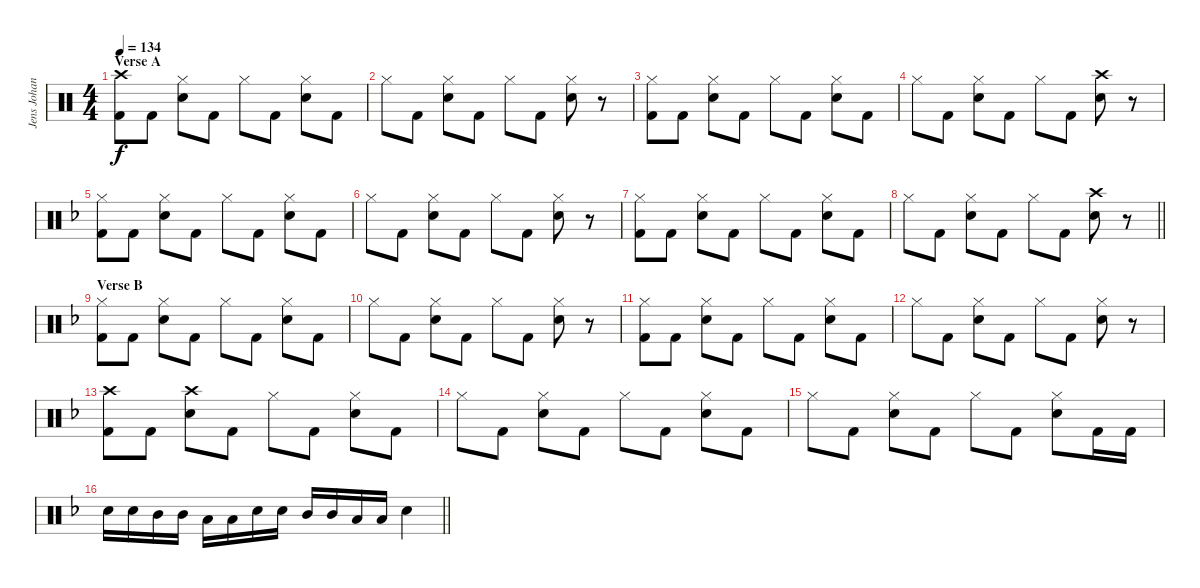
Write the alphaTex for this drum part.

\track ("Jens Johansson" "Jens Johan") {instrument percussion}
\staff {score}
\articulation defaults
\ts (4 4)
\section ("" "Verse A")
\tempo 134
\clef neutral
\ks c
("Crash high (hit)" "Kick (hit) 2").8{dy f} "Kick (hit) 2".8 ("Electric Snare (hit)" "Hi-Hat (closed)").8 "Kick (hit) 2".8 "Hi-Hat (closed)".8 "Kick (hit) 2".8 ("Electric Snare (hit)" "Hi-Hat (closed)").8 "Kick (hit) 2".8 |
"Hi-Hat (closed)".8 "Kick (hit) 2".8 ("Electric Snare (hit)" "Hi-Hat (closed)").8 "Kick (hit) 2".8 "Hi-Hat (closed)".8 "Kick (hit) 2".8 ("Electric Snare (hit)" "Hi-Hat (closed)").8 r.8 |
("Hi-Hat (closed)" "Kick (hit) 2").8 "Kick (hit) 2".8 ("Electric Snare (hit)" "Hi-Hat (closed)").8 "Kick (hit) 2".8 "Hi-Hat (closed)".8 "Kick (hit) 2".8 ("Electric Snare (hit)" "Hi-Hat (closed)").8 "Kick (hit) 2".8 |
"Hi-Hat (closed)".8 "Kick (hit) 2".8 ("Electric Snare (hit)" "Hi-Hat (closed)").8 "Kick (hit) 2".8 "Hi-Hat (closed)".8 "Kick (hit) 2".8 ("Crash high (hit)" "Electric Snare (hit)").8 r.8 |
\ks f
("Hi-Hat (closed)" "Kick (hit) 2").8 "Kick (hit) 2".8 ("Electric Snare (hit)" "Hi-Hat (closed)").8 "Kick (hit) 2".8 "Hi-Hat (closed)".8 "Kick (hit) 2".8 ("Electric Snare (hit)" "Hi-Hat (closed)").8 "Kick (hit) 2".8 |
"Hi-Hat (closed)".8 "Kick (hit) 2".8 ("Electric Snare (hit)" "Hi-Hat (closed)").8 "Kick (hit) 2".8 "Hi-Hat (closed)".8 "Kick (hit) 2".8 ("Electric Snare (hit)" "Hi-Hat (closed)").8 r.8 |
("Hi-Hat (closed)" "Kick (hit) 2").8 "Kick (hit) 2".8 ("Electric Snare (hit)" "Hi-Hat (closed)").8 "Kick (hit) 2".8 "Hi-Hat (closed)".8 "Kick (hit) 2".8 ("Electric Snare (hit)" "Hi-Hat (closed)").8 "Kick (hit) 2".8 |
\barLineRight lightlight "Hi-Hat (closed)".8 "Kick (hit) 2".8
("Electric Snare (hit)" "Hi-Hat (closed)").8 "Kick (hit) 2".8 "Hi-Hat (closed)".8 "Kick (hit) 2".8 ("Crash high (hit)" "Electric Snare (hit)").8 r.8 |
\section ("" "Verse B")
("Hi-Hat (closed)" "Kick (hit) 2").8 "Kick (hit) 2".8 ("Electric Snare (hit)" "Hi-Hat (closed)").8 "Kick (hit) 2".8 "Hi-Hat (closed)".8 "Kick (hit) 2".8 ("Electric Snare (hit)" "Hi-Hat (closed)").8 "Kick (hit) 2".8 |
"Hi-Hat (closed)".8 "Kick (hit) 2".8 ("Electric Snare (hit)" "Hi-Hat (closed)").8 "Kick (hit) 2".8 "Hi-Hat (closed)".8 "Kick (hit) 2".8 ("Electric Snare (hit)" "Hi-Hat (closed)").8 r.8 |
("Hi-Hat (closed)" "Kick (hit) 2").8 "Kick (hit) 2".8 ("Electric Snare (hit)" "Hi-Hat (closed)").8 "Kick (hit) 2".8 "Hi-Hat (closed)".8 "Kick (hit) 2".8 ("Electric Snare (hit)" "Hi-Hat (closed)").8 "Kick (hit) 2".8 |
"Hi-Hat (closed)".8 "Kick (hit) 2".8 ("Electric Snare (hit)" "Hi-Hat (closed)").8 "Kick (hit) 2".8 "Hi-Hat (closed)".8 "Kick (hit) 2".8 ("Electric Snare (hit)" "Hi-Hat (closed)").8 r.8 |
("Crash high (hit)" "Kick (hit) 2").8 "Kick (hit) 2".8 ("Crash high (hit)" "Electric Snare (hit)").8 "Kick (hit) 2".8 "Hi-Hat (closed)".8 "Kick (hit) 2".8 ("Electric Snare (hit)" "Hi-Hat (closed)").8 "Kick (hit) 2".8 |
"Hi-Hat (closed)".8 "Kick (hit) 2".8 ("Electric Snare (hit)" "Hi-Hat (closed)").8 "Kick (hit) 2".8 "Hi-Hat (closed)".8 "Kick (hit) 2".8 ("Electric Snare (hit)" "Hi-Hat (closed)").8 "Kick (hit) 2".8 |
"Hi-Hat (closed)".8 "Kick (hit) 2".8 ("Electric Snare (hit)" "Hi-Hat (closed)").8 "Kick (hit) 2".8 "Hi-Hat (closed)".8 "Kick (hit) 2".8 ("Electric Snare (hit)" "Hi-Hat (closed)").8 "Kick (hit) 2".16 "Kick (hit) 2".16 |
\barLineRight lightlight "Electric Snare (hit)".16 "Electric Snare (hit)".16 "Mid Tom (hit)".16 "Mid Tom (hit)".16 "Low Tom (hit)".16 "Low Tom (hit)".16 "Electric Snare (hit)".16 "Electric Snare (hit)".16 "Mid Tom (hit)".16 "Mid Tom (hit)".16 "Low Tom (hit)".16 "Low Tom (hit)".16 "Electric Snare (hit)".4
